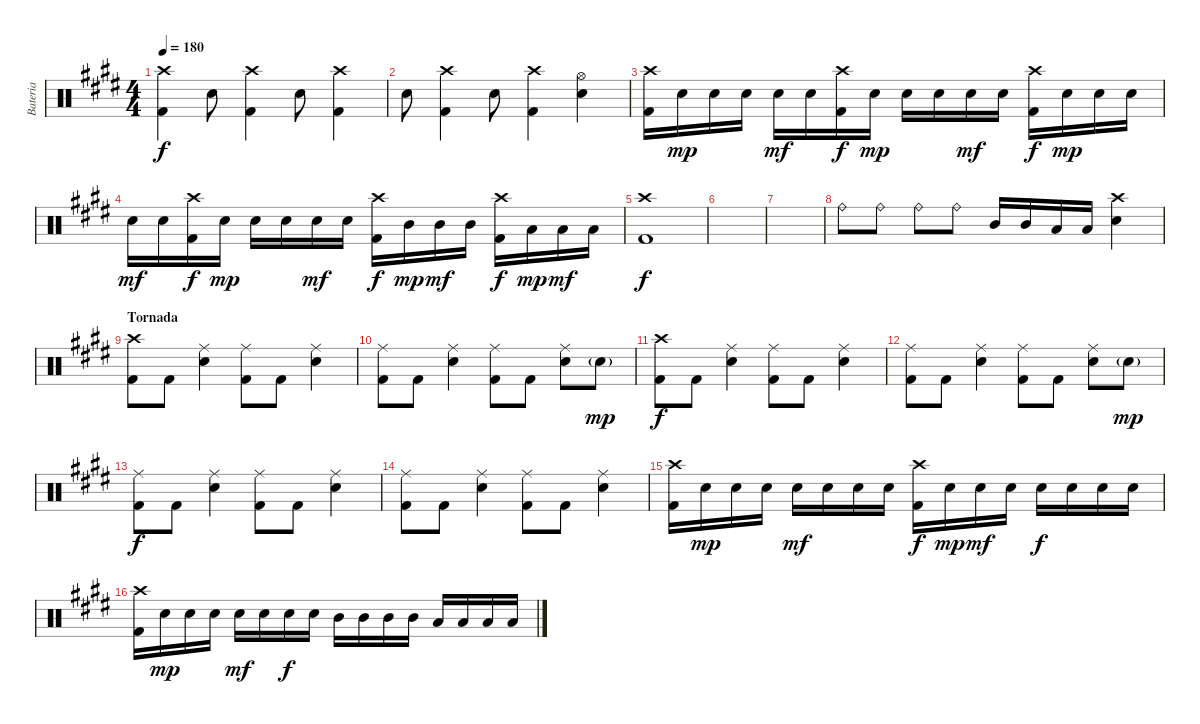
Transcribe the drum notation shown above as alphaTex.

\track ("Bateria" "Bateria") {instrument percussion}
\staff {score}
\articulation defaults
\ts (4 4)
\tempo 180
\clef neutral
\ks e
("Crash high (hit)" "Kick (hit) 2").4{dy f} "Electric Snare (hit)".8 ("Crash high (hit)" "Kick (hit) 2").4 "Electric Snare (hit)".8 ("Crash high (hit)" "Kick (hit) 2").4 |
"Electric Snare (hit)".8 ("Crash high (hit)" "Kick (hit) 2").4 "Electric Snare (hit)".8 ("Crash high (hit)" "Kick (hit) 2").4 ("Hi-Hat (open)" "Electric Snare (hit)").4 |
("Crash high (hit)" "Kick (hit) 2").16 "Electric Snare (hit)".16{dy mp} "Electric Snare (hit)".16 "Electric Snare (hit)".16 "Electric Snare (hit)".16{dy mf} "Electric Snare (hit)".16 ("Crash high (hit)" "Kick (hit) 2").16{dy f} "Electric Snare (hit)".16{dy mp} "Electric Snare (hit)".16 "Electric Snare (hit)".16 "Electric Snare (hit)".16{dy mf} "Electric Snare (hit)".16 ("Crash high (hit)" "Kick (hit) 2").16{dy f} "Electric Snare (hit)".16{dy mp} "Electric Snare (hit)".16 "Electric Snare (hit)".16 |
"Electric Snare (hit)".16{dy mf} "Electric Snare (hit)".16 ("Crash high (hit)" "Kick (hit) 2").16{dy f} "Electric Snare (hit)".16{dy mp} "Electric Snare (hit)".16 "Electric Snare (hit)".16 "Electric Snare (hit)".16{dy mf} "Electric Snare (hit)".16 ("Crash high (hit)" "Kick (hit) 2").16{dy f} "Mid Tom (hit)".16{dy mp} "Mid Tom (hit)".16{dy mf} "Mid Tom (hit)".16 ("Crash high (hit)" "Kick (hit) 2").16{dy f} "Low Tom (hit)".16{dy mp} "Low Tom (hit)".16{dy mf} "Low Tom (hit)".16 |
("Crash high (hit)" "Kick (hit) 2").1{dy f} |
|
|
"Ride (bell)".8 "Ride (bell)".8 "Ride (bell)".8 "Ride (bell)".8 "Mid Tom (hit)".16 "Mid Tom (hit)".16 "Low Tom (hit)".16 "Low Tom (hit)".16 ("Crash high (hit)" "Electric Snare (hit)").4 |
\section ("" "Tornada")
("Crash high (hit)" "Kick (hit) 2").8 "Kick (hit) 2".8 ("Ride (middle)" "Electric Snare (hit)").4 ("Ride (middle)" "Kick (hit) 2").8 "Kick (hit) 2".8 ("Ride (middle)" "Electric Snare (hit)").4 |
("Ride (middle)" "Kick (hit) 2").8 "Kick (hit) 2".8 ("Ride (middle)" "Electric Snare (hit)").4 ("Ride (middle)" "Kick (hit) 2").8 "Kick (hit) 2".8 ("Ride (middle)" "Electric Snare (hit)").8 "Electric Snare (hit)"{g}.8{dy mp} |
("Crash high (hit)" "Kick (hit) 2").8{dy f} "Kick (hit) 2".8 ("Ride (middle)" "Electric Snare (hit)").4 ("Ride (middle)" "Kick (hit) 2").8 "Kick (hit) 2".8 ("Ride (middle)" "Electric Snare (hit)").4 |
("Ride (middle)" "Kick (hit) 2").8 "Kick (hit) 2".8 ("Ride (middle)" "Electric Snare (hit)").4 ("Ride (middle)" "Kick (hit) 2").8 "Kick (hit) 2".8 ("Ride (middle)" "Electric Snare (hit)").8 "Electric Snare (hit)"{g}.8{dy mp} |
("Ride (middle)" "Kick (hit) 2").8{dy f} "Kick (hit) 2".8 ("Ride (middle)" "Electric Snare (hit)").4 ("Ride (middle)" "Kick (hit) 2").8 "Kick (hit) 2".8 ("Ride (middle)" "Electric Snare (hit)").4 |
("Ride (middle)" "Kick (hit) 2").8 "Kick (hit) 2".8 ("Ride (middle)" "Electric Snare (hit)").4 ("Ride (middle)" "Kick (hit) 2").8 "Kick (hit) 2".8 ("Ride (middle)" "Electric Snare (hit)").4 |
("Crash high (hit)" "Kick (hit) 2").16 "Electric Snare (hit)".16{dy mp} "Electric Snare (hit)".16 "Electric Snare (hit)".16 "Electric Snare (hit)".16{dy mf} "Electric Snare (hit)".16 "Electric Snare (hit)".16 "Electric Snare (hit)".16 ("Crash high (hit)" "Kick (hit) 2").16{dy f} "Electric Snare (hit)".16{dy mp} "Electric Snare (hit)".16{dy mf} "Electric Snare (hit)".16 "Electric Snare (hit)".16{dy f} "Electric Snare (hit)".16 "Electric Snare (hit)".16 "Electric Snare (hit)".16 |
("Crash high (hit)" "Kick (hit) 2").16 "Electric Snare (hit)".16{dy mp} "Electric Snare (hit)".16 "Electric Snare (hit)".16 "Electric Snare (hit)".16{dy mf} "Electric Snare (hit)".16 "Electric Snare (hit)".16{dy f} "Electric Snare (hit)".16 "Mid Tom (hit)".16 "Mid Tom (hit)".16 "Mid Tom (hit)".16 "Mid Tom (hit)".16 "Low Tom (hit)".16 "Low Tom (hit)".16 "Low Tom (hit)".16 "Low Tom (hit)".16
